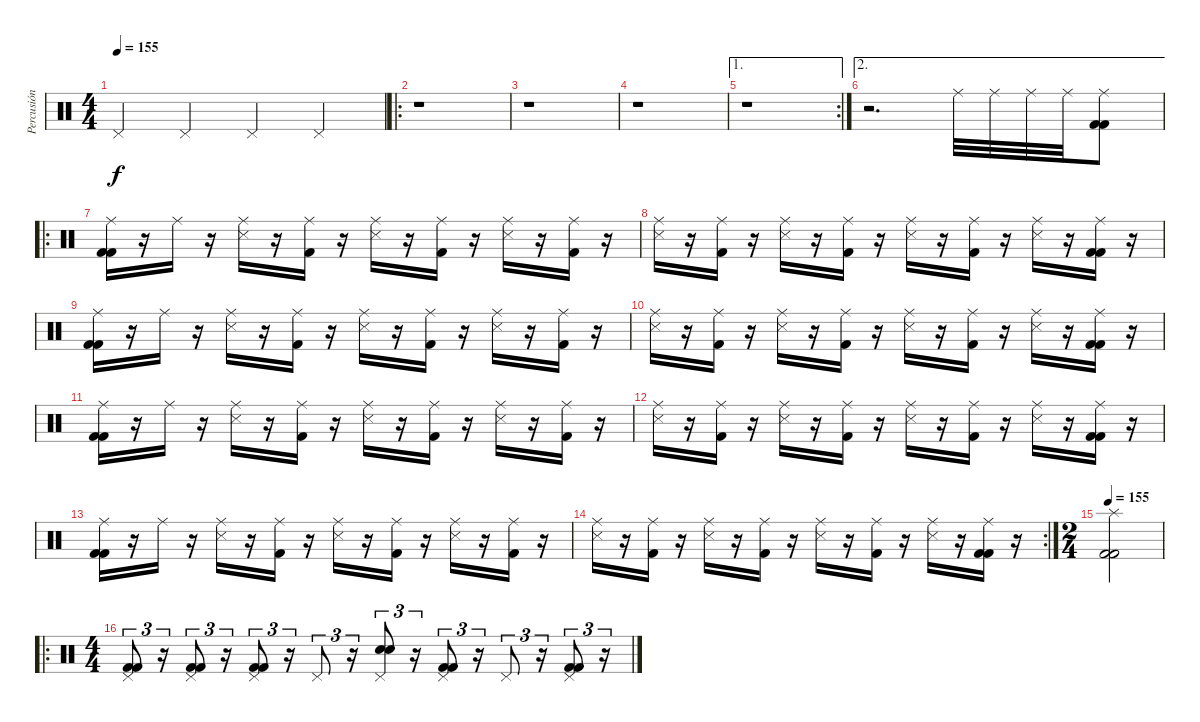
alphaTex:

\track ("Percusión" "Percusión") {instrument percussion}
\staff {score}
\articulation defaults
\ts (4 4)
\tempo 155
\tempo 110
\tempo 155
\clef neutral
\ks c "Pedal Hi-Hat (hit)".4{dy f} "Pedal Hi-Hat (hit)".4 "Pedal Hi-Hat (hit)".4 "Pedal Hi-Hat (hit)".4
|
\ro
r.1 |
r.1 |
r.1 |
\ae 1
\rc 2
r.1 |
\ae 2
r.2{d} "Ride (middle)".32 "Ride (middle)".32 "Ride (middle)".32 "Ride (middle)".32 ("Ride (middle)" "Kick (hit) 2" "Kick (hit) 2").8 |
\ro
("Ride (middle)" "Kick (hit) 2" "Kick (hit) 2").16 r.16 "Ride (middle)".16 r.16 ("Ride (middle)" "Snare (side stick) 3").16 r.16 ("Ride (middle)" "Kick (hit) 2").16 r.16 ("Ride (middle)" "Snare (side stick) 3").16 r.16 ("Ride (middle)" "Kick (hit) 2").16 r.16 ("Ride (middle)" "Snare (side stick) 3").16 r.16 ("Ride (middle)" "Kick (hit) 2").16 r.16 |
("Ride (middle)" "Snare (side stick) 3").16 r.16 ("Ride (middle)" "Kick (hit) 2").16 r.16 ("Ride (middle)" "Snare (side stick) 3").16 r.16 ("Ride (middle)" "Kick (hit) 2").16 r.16 ("Ride (middle)" "Snare (side stick) 3").16 r.16 ("Ride (middle)" "Kick (hit) 2").16 r.16 ("Ride (middle)" "Snare (side stick) 3").16 r.16 ("Ride (middle)" "Kick (hit) 2" "Kick (hit) 2").16 r.16 |
("Ride (middle)" "Kick (hit) 2" "Kick (hit) 2").16 r.16 "Ride (middle)".16 r.16 ("Ride (middle)" "Snare (side stick) 3").16 r.16 ("Ride (middle)" "Kick (hit) 2").16 r.16 ("Ride (middle)" "Snare (side stick) 3").16 r.16 ("Ride (middle)" "Kick (hit) 2").16 r.16 ("Ride (middle)" "Snare (side stick) 3").16 r.16 ("Ride (middle)" "Kick (hit) 2").16 r.16 |
("Ride (middle)" "Snare (side stick) 3").16 r.16 ("Ride (middle)" "Kick (hit) 2").16 r.16 ("Ride (middle)" "Snare (side stick) 3").16 r.16 ("Ride (middle)" "Kick (hit) 2").16 r.16 ("Ride (middle)" "Snare (side stick) 3").16 r.16 ("Ride (middle)" "Kick (hit) 2").16 r.16 ("Ride (middle)" "Snare (side stick) 3").16 r.16 ("Ride (middle)" "Kick (hit) 2" "Kick (hit) 2").16 r.16 |
("Ride (middle)" "Kick (hit) 2" "Kick (hit) 2").16 r.16 "Ride (middle)".16 r.16 ("Ride (middle)" "Snare (side stick) 3").16 r.16 ("Ride (middle)" "Kick (hit) 2").16 r.16 ("Ride (middle)" "Snare (side stick) 3").16 r.16 ("Ride (middle)" "Kick (hit) 2").16 r.16 ("Ride (middle)" "Snare (side stick) 3").16 r.16 ("Ride (middle)" "Kick (hit) 2").16 r.16 |
("Ride (middle)" "Snare (side stick) 3").16 r.16 ("Ride (middle)" "Kick (hit) 2").16 r.16 ("Ride (middle)" "Snare (side stick) 3").16 r.16 ("Ride (middle)" "Kick (hit) 2").16 r.16 ("Ride (middle)" "Snare (side stick) 3").16 r.16 ("Ride (middle)" "Kick (hit) 2").16 r.16 ("Ride (middle)" "Snare (side stick) 3").16 r.16 ("Ride (middle)" "Kick (hit) 2" "Kick (hit) 2").16 r.16 |
("Ride (middle)" "Kick (hit) 2" "Kick (hit) 2").16 r.16 "Ride (middle)".16 r.16 ("Ride (middle)" "Snare (side stick) 3").16 r.16 ("Ride (middle)" "Kick (hit) 2").16 r.16 ("Ride (middle)" "Snare (side stick) 3").16 r.16 ("Ride (middle)" "Kick (hit) 2").16 r.16 ("Ride (middle)" "Snare (side stick) 3").16 r.16 ("Ride (middle)" "Kick (hit) 2").16 r.16 |
\rc 2
("Ride (middle)" "Snare (side stick) 3").16 r.16 ("Ride (middle)" "Kick (hit) 2").16 r.16 ("Ride (middle)" "Snare (side stick) 3").16 r.16 ("Ride (middle)" "Kick (hit) 2").16 r.16 ("Ride (middle)" "Snare (side stick) 3").16 r.16 ("Ride (middle)" "Kick (hit) 2").16 r.16 ("Ride (middle)" "Snare (side stick) 3").16 r.16 ("Ride (middle)" "Kick (hit) 2" "Kick (hit) 2").16 r.16 |
\ts (2 4)
\tempo 155
("Splash (hit)" "Kick (hit) 2" "Kick (hit) 2").2 |
\ro
\ts (4 4)
("Pedal Hi-Hat (hit)" "Kick (hit) 2" "Kick (hit) 2").8{tu (3 2)} r.16{tu (3 2)} ("Pedal Hi-Hat (hit)" "Kick (hit) 2" "Kick (hit) 2").8{tu (3 2)} r.16{tu (3 2)} ("Pedal Hi-Hat (hit)" "Kick (hit) 2" "Kick (hit) 2").8{tu (3 2)} r.16{tu (3 2)} "Pedal Hi-Hat (hit)".8{tu (3 2)} r.16{tu (3 2)} ("Pedal Hi-Hat (hit)" "Electric Snare (hit)" "Electric Snare (hit)").8{tu (3 2)} r.16{tu (3 2)} ("Pedal Hi-Hat (hit)" "Kick (hit) 2" "Kick (hit) 2").8{tu (3 2)} r.16{tu (3 2)} "Pedal Hi-Hat (hit)".8{tu (3 2)} r.16{tu (3 2)} ("Pedal Hi-Hat (hit)" "Kick (hit) 2" "Kick (hit) 2").8{tu (3 2)} r.16{tu (3 2)}
